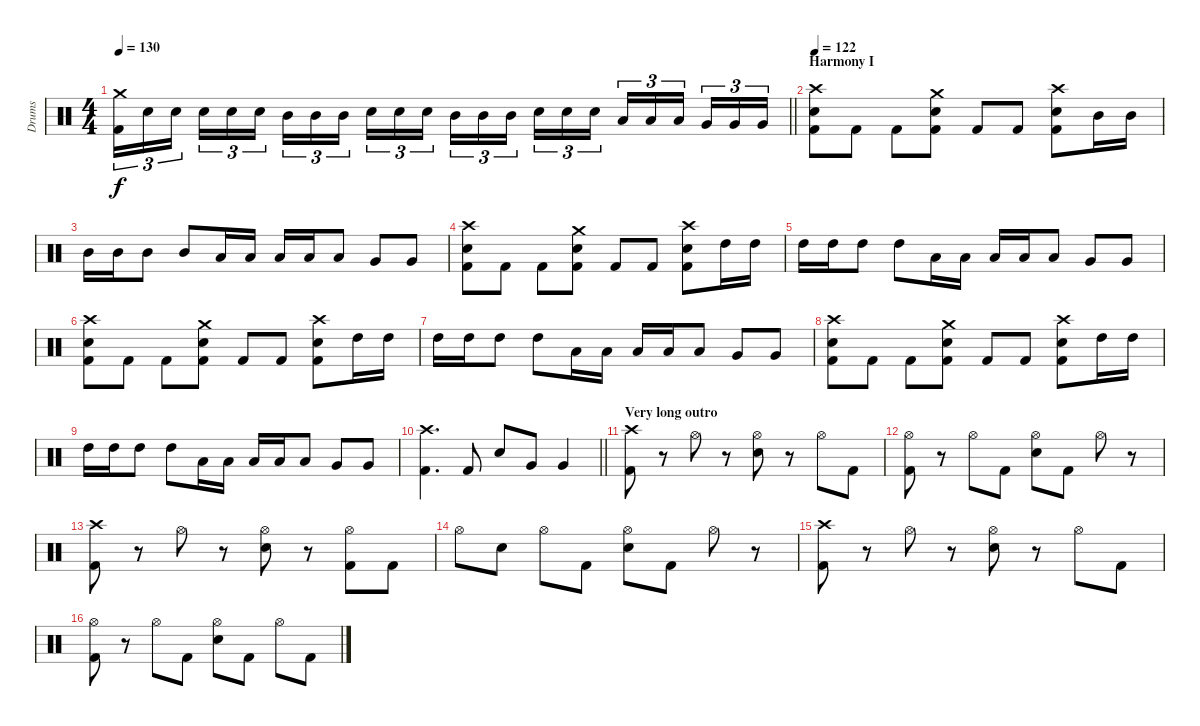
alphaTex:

\track ("Drums" "Drums") {instrument percussion}
\staff {score}
\articulation defaults
\ts (4 4)
\tempo 130
\clef neutral
\barLineRight lightlight
\ks c
("Crash medium (hit)" "Kick (hit) 2").16{tu (3 2) dy f} "Electric Snare (hit)".16{tu (3 2)} "Electric Snare (hit)".16{tu (3 2) beam splitsecondary} "Electric Snare (hit)".16{tu (3 2)} "Electric Snare (hit)".16{tu (3 2)} "Electric Snare (hit)".16{tu (3 2)} "Mid Tom (hit)".16{tu (3 2)} "Mid Tom (hit)".16{tu (3 2)} "Mid Tom (hit)".16{tu (3 2) beam splitsecondary} "Electric Snare (hit)".16{tu (3 2)} "Electric Snare (hit)".16{tu (3 2)} "Electric Snare (hit)".16{tu (3 2)} "Mid Tom (hit)".16{tu (3 2)} "Mid Tom (hit)".16{tu (3 2)} "Mid Tom (hit)".16{tu (3 2) beam splitsecondary} "Electric Snare (hit)".16{tu (3 2)} "Electric Snare (hit)".16{tu (3 2)} "Electric Snare (hit)".16{tu (3 2)} "Low Tom (hit)".16{tu (3 2)} "Low Tom (hit)".16{tu (3 2)} "Low Tom (hit)".16{tu (3 2) beam splitsecondary} "Very Low Tom (hit)".16{tu (3 2)} "Very Low Tom (hit)".16{tu (3 2)} "Very Low Tom (hit)".16{tu (3 2)} |
\section ("" "Harmony I")
\tempo 122
("Crash high (hit)" "Electric Snare (hit)" "Kick (hit) 2").8 "Kick (hit) 2".8 "Kick (hit) 2".8 ("Crash medium (hit)" "Electric Snare (hit)" "Kick (hit) 2").8 "Kick (hit) 2".8 "Kick (hit) 2".8 ("Crash high (hit)" "Electric Snare (hit)" "Kick (hit) 2").8 "Mid Tom (hit)".16 "Mid Tom (hit)".16 |
"Mid Tom (hit)".16 "Mid Tom (hit)".16 "Mid Tom (hit)".8 "Mid Tom (hit)".8 "Low Tom (hit)".16 "Low Tom (hit)".16 "Low Tom (hit)".16 "Low Tom (hit)".16 "Low Tom (hit)".8 "Very Low Tom (hit)".8 "Very Low Tom (hit)".8 |
("Crash high (hit)" "Electric Snare (hit)" "Kick (hit) 2").8 "Kick (hit) 2".8 "Kick (hit) 2".8 ("Crash medium (hit)" "Electric Snare (hit)" "Kick (hit) 2").8 "Kick (hit) 2".8 "Kick (hit) 2".8 ("Crash high (hit)" "Electric Snare (hit)" "Kick (hit) 2").8 "High Tom (hit)".16 "High Tom (hit)".16 |
"High Tom (hit)".16 "High Tom (hit)".16 "High Tom (hit)".8 "High Tom (hit)".8 "Low Tom (hit)".16 "Low Tom (hit)".16 "Low Tom (hit)".16 "Low Tom (hit)".16 "Low Tom (hit)".8 "Very Low Tom (hit)".8 "Very Low Tom (hit)".8 |
("Crash high (hit)" "Electric Snare (hit)" "Kick (hit) 2").8 "Kick (hit) 2".8 "Kick (hit) 2".8 ("Crash medium (hit)" "Electric Snare (hit)" "Kick (hit) 2").8 "Kick (hit) 2".8 "Kick (hit) 2".8 ("Crash high (hit)" "Electric Snare (hit)" "Kick (hit) 2").8 "High Tom (hit)".16 "High Tom (hit)".16 |
"High Tom (hit)".16 "High Tom (hit)".16 "High Tom (hit)".8 "High Tom (hit)".8 "Low Tom (hit)".16 "Low Tom (hit)".16 "Low Tom (hit)".16 "Low Tom (hit)".16 "Low Tom (hit)".8 "Very Low Tom (hit)".8 "Very Low Tom (hit)".8 |
("Crash high (hit)" "Electric Snare (hit)" "Kick (hit) 2").8 "Kick (hit) 2".8 "Kick (hit) 2".8 ("Crash medium (hit)" "Electric Snare (hit)" "Kick (hit) 2").8 "Kick (hit) 2".8 "Kick (hit) 2".8 ("Crash high (hit)" "Electric Snare (hit)" "Kick (hit) 2").8 "High Tom (hit)".16 "High Tom (hit)".16 |
"High Tom (hit)".16 "High Tom (hit)".16 "High Tom (hit)".8 "High Tom (hit)".8 "Low Tom (hit)".16 "Low Tom (hit)".16 "Low Tom (hit)".16 "Low Tom (hit)".16 "Low Tom (hit)".8 "Very Low Tom (hit)".8 "Very Low Tom (hit)".8 |
\barLineRight lightlight
("Crash high (hit)" "Kick (hit) 2").4{d} "Kick (hit) 2".8 "Electric Snare (hit)".8 "Very Low Tom (hit)".8 "Very Low Tom (hit)".4 |
\section ("" "Very long outro")
("Crash high (hit)" "Kick (hit) 2").8 r.8 "Hi-Hat (open)".8 r.8 ("Hi-Hat (open)" "Electric Snare (hit)").8 r.8 "Hi-Hat (open)".8 "Kick (hit) 2".8 |
("Hi-Hat (open)" "Kick (hit) 2").8 r.8 "Hi-Hat (open)".8 "Kick (hit) 2".8 ("Hi-Hat (open)" "Electric Snare (hit)").8 "Kick (hit) 2".8 "Hi-Hat (open)".8 r.8 |
("Crash high (hit)" "Kick (hit) 2").8 r.8 "Hi-Hat (open)".8 r.8 ("Hi-Hat (open)" "Electric Snare (hit)").8 r.8 ("Hi-Hat (open)" "Kick (hit) 2").8 "Kick (hit) 2".8 |
"Hi-Hat (open)".8 "Electric Snare (hit)".8 "Hi-Hat (open)".8 "Kick (hit) 2".8 ("Hi-Hat (open)" "Electric Snare (hit)").8 "Kick (hit) 2".8 "Hi-Hat (open)".8 r.8 |
("Crash high (hit)" "Kick (hit) 2").8 r.8 "Hi-Hat (open)".8 r.8 ("Hi-Hat (open)" "Electric Snare (hit)").8 r.8 "Hi-Hat (open)".8 "Kick (hit) 2".8 |
("Hi-Hat (open)" "Kick (hit) 2").8 r.8 "Hi-Hat (open)".8 "Kick (hit) 2".8 ("Hi-Hat (open)" "Electric Snare (hit)").8 "Kick (hit) 2".8 "Hi-Hat (open)".8 "Kick (hit) 2".8
